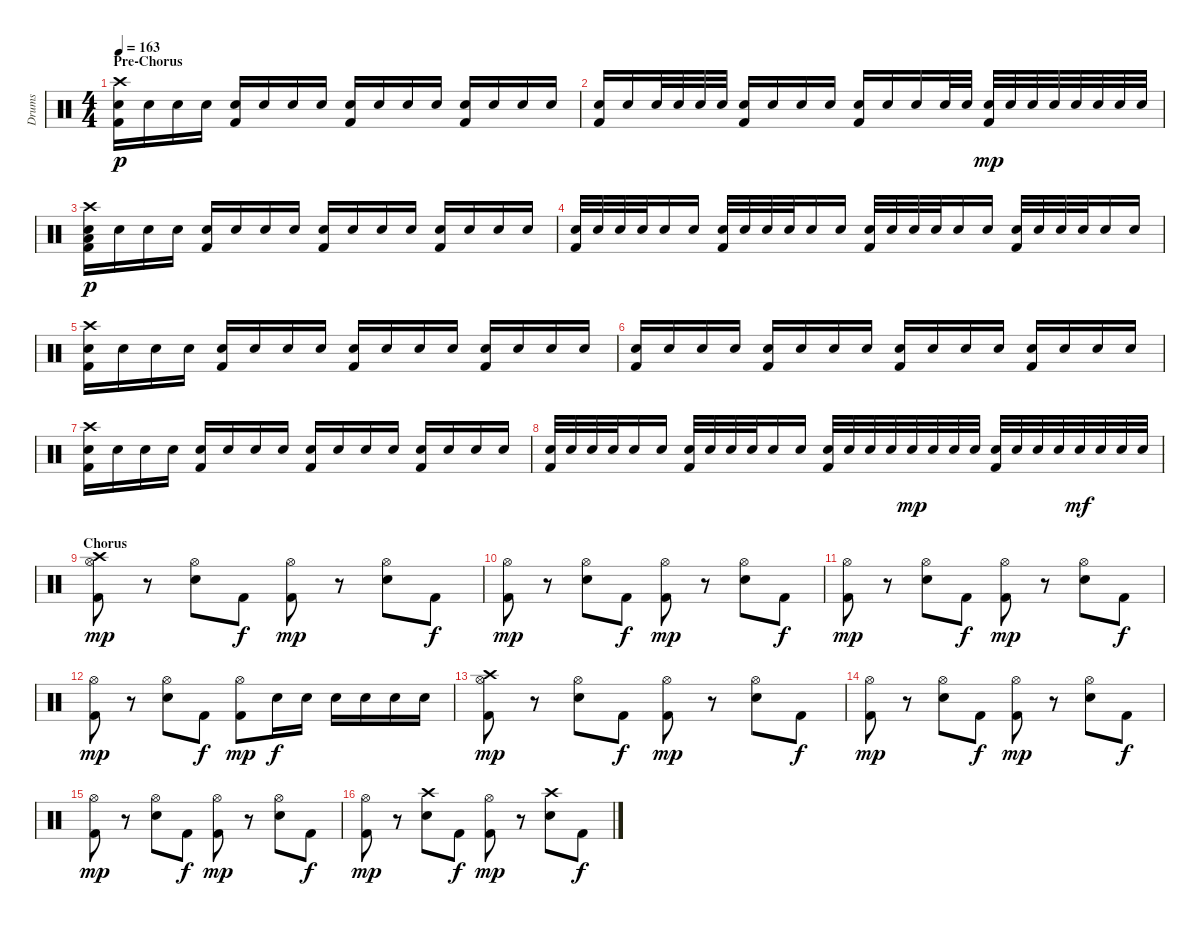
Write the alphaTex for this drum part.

\track ("Drums" "Drums") {instrument percussion}
\staff {score}
\articulation defaults
\ts (4 4)
\section ("" "Pre-Chorus")
\tempo 163
\clef neutral
\ks c
("Crash high (hit)" "Electric Snare (hit)" "Kick (hit) 2").16{dy p} "Electric Snare (hit)".16 "Electric Snare (hit)".16 "Electric Snare (hit)".16 ("Electric Snare (hit)" "Kick (hit) 2").16 "Electric Snare (hit)".16 "Electric Snare (hit)".16 "Electric Snare (hit)".16 ("Electric Snare (hit)" "Kick (hit) 2").16 "Electric Snare (hit)".16 "Electric Snare (hit)".16 "Electric Snare (hit)".16 ("Electric Snare (hit)" "Kick (hit) 2").16 "Electric Snare (hit)".16 "Electric Snare (hit)".16 "Electric Snare (hit)".16 |
("Electric Snare (hit)" "Kick (hit) 2").16 "Electric Snare (hit)".16 "Electric Snare (hit)".32 "Electric Snare (hit)".32 "Electric Snare (hit)".32 "Electric Snare (hit)".32 ("Electric Snare (hit)" "Kick (hit) 2").16 "Electric Snare (hit)".16 "Electric Snare (hit)".16 "Electric Snare (hit)".16 ("Electric Snare (hit)" "Kick (hit) 2").16 "Electric Snare (hit)".16 "Electric Snare (hit)".16 "Electric Snare (hit)".32 "Electric Snare (hit)".32 ("Electric Snare (hit)" "Kick (hit) 2").32{dy mp} "Electric Snare (hit)".32 "Electric Snare (hit)".32 "Electric Snare (hit)".32 "Electric Snare (hit)".32 "Electric Snare (hit)".32 "Electric Snare (hit)".32 "Electric Snare (hit)".32 |
("Low Floor Tom (hit)" "Crash high (hit)" "Electric Snare (hit)" "Kick (hit) 2").16{dy p} "Electric Snare (hit)".16 "Electric Snare (hit)".16 "Electric Snare (hit)".16 ("Electric Snare (hit)" "Kick (hit) 2").16 "Electric Snare (hit)".16 "Electric Snare (hit)".16 "Electric Snare (hit)".16 ("Electric Snare (hit)" "Kick (hit) 2").16 "Electric Snare (hit)".16 "Electric Snare (hit)".16 "Electric Snare (hit)".16 ("Electric Snare (hit)" "Kick (hit) 2").16 "Electric Snare (hit)".16 "Electric Snare (hit)".16 "Electric Snare (hit)".16 |
("Electric Snare (hit)" "Kick (hit) 2").32 "Electric Snare (hit)".32 "Electric Snare (hit)".32 "Electric Snare (hit)".32 "Electric Snare (hit)".16 "Electric Snare (hit)".16 ("Electric Snare (hit)" "Kick (hit) 2").32 "Electric Snare (hit)".32 "Electric Snare (hit)".32 "Electric Snare (hit)".32 "Electric Snare (hit)".16 "Electric Snare (hit)".16 ("Electric Snare (hit)" "Kick (hit) 2").32 "Electric Snare (hit)".32 "Electric Snare (hit)".32 "Electric Snare (hit)".32 "Electric Snare (hit)".16 "Electric Snare (hit)".16 ("Electric Snare (hit)" "Kick (hit) 2").32 "Electric Snare (hit)".32 "Electric Snare (hit)".32 "Electric Snare (hit)".32 "Electric Snare (hit)".16 "Electric Snare (hit)".16 |
("Crash high (hit)" "Electric Snare (hit)" "Kick (hit) 2").16 "Electric Snare (hit)".16 "Electric Snare (hit)".16 "Electric Snare (hit)".16 ("Electric Snare (hit)" "Kick (hit) 2").16 "Electric Snare (hit)".16 "Electric Snare (hit)".16 "Electric Snare (hit)".16 ("Electric Snare (hit)" "Kick (hit) 2").16 "Electric Snare (hit)".16 "Electric Snare (hit)".16 "Electric Snare (hit)".16 ("Electric Snare (hit)" "Kick (hit) 2").16 "Electric Snare (hit)".16 "Electric Snare (hit)".16 "Electric Snare (hit)".16 |
("Electric Snare (hit)" "Kick (hit) 2").16 "Electric Snare (hit)".16 "Electric Snare (hit)".16 "Electric Snare (hit)".16 ("Electric Snare (hit)" "Kick (hit) 2").16 "Electric Snare (hit)".16 "Electric Snare (hit)".16 "Electric Snare (hit)".16 ("Electric Snare (hit)" "Kick (hit) 2").16 "Electric Snare (hit)".16 "Electric Snare (hit)".16 "Electric Snare (hit)".16 ("Electric Snare (hit)" "Kick (hit) 2").16 "Electric Snare (hit)".16 "Electric Snare (hit)".16 "Electric Snare (hit)".16 |
("Crash high (hit)" "Electric Snare (hit)" "Kick (hit) 2").16 "Electric Snare (hit)".16 "Electric Snare (hit)".16 "Electric Snare (hit)".16 ("Electric Snare (hit)" "Kick (hit) 2").16 "Electric Snare (hit)".16 "Electric Snare (hit)".16 "Electric Snare (hit)".16 ("Electric Snare (hit)" "Kick (hit) 2").16 "Electric Snare (hit)".16 "Electric Snare (hit)".16 "Electric Snare (hit)".16 ("Electric Snare (hit)" "Kick (hit) 2").16 "Electric Snare (hit)".16 "Electric Snare (hit)".16 "Electric Snare (hit)".16 |
("Electric Snare (hit)" "Kick (hit) 2").32 "Electric Snare (hit)".32 "Electric Snare (hit)".32 "Electric Snare (hit)".32 "Electric Snare (hit)".16 "Electric Snare (hit)".16 ("Electric Snare (hit)" "Kick (hit) 2").32 "Electric Snare (hit)".32 "Electric Snare (hit)".32 "Electric Snare (hit)".32 "Electric Snare (hit)".16 "Electric Snare (hit)".16 ("Electric Snare (hit)" "Kick (hit) 2").32 "Electric Snare (hit)".32 "Electric Snare (hit)".32 "Electric Snare (hit)".32 "Electric Snare (hit)".32{dy mp} "Electric Snare (hit)".32 "Electric Snare (hit)".32 "Electric Snare (hit)".32 ("Electric Snare (hit)" "Kick (hit) 2").32 "Electric Snare (hit)".32 "Electric Snare (hit)".32 "Electric Snare (hit)".32 "Electric Snare (hit)".32{dy mf} "Electric Snare (hit)".32 "Electric Snare (hit)".32 "Electric Snare (hit)".32 |
\section ("" "Chorus")
("Crash high (hit)" "Hi-Hat (open)" "Kick (hit) 2").8{dy mp} r.8 ("Hi-Hat (open)" "Electric Snare (hit)").8 "Kick (hit) 2".8{dy f} ("Hi-Hat (open)" "Kick (hit) 2").8{dy mp} r.8 ("Hi-Hat (open)" "Electric Snare (hit)").8 "Kick (hit) 2".8{dy f} |
("Hi-Hat (open)" "Kick (hit) 2").8{dy mp} r.8 ("Hi-Hat (open)" "Electric Snare (hit)").8 "Kick (hit) 2".8{dy f} ("Hi-Hat (open)" "Kick (hit) 2").8{dy mp} r.8 ("Hi-Hat (open)" "Electric Snare (hit)").8 "Kick (hit) 2".8{dy f} |
("Hi-Hat (open)" "Kick (hit) 2").8{dy mp} r.8 ("Hi-Hat (open)" "Electric Snare (hit)").8 "Kick (hit) 2".8{dy f} ("Hi-Hat (open)" "Kick (hit) 2").8{dy mp} r.8 ("Hi-Hat (open)" "Electric Snare (hit)").8 "Kick (hit) 2".8{dy f} |
("Hi-Hat (open)" "Kick (hit) 2").8{dy mp} r.8 ("Hi-Hat (open)" "Electric Snare (hit)").8 "Kick (hit) 2".8{dy f} ("Hi-Hat (open)" "Kick (hit) 2").8{dy mp} "Electric Snare (hit)".16{dy f} "Electric Snare (hit)".16 "Electric Snare (hit)".16 "Electric Snare (hit)".16 "Electric Snare (hit)".16 "Electric Snare (hit)".16 |
("Crash high (hit)" "Hi-Hat (open)" "Kick (hit) 2").8{dy mp} r.8 ("Hi-Hat (open)" "Electric Snare (hit)").8 "Kick (hit) 2".8{dy f} ("Hi-Hat (open)" "Kick (hit) 2").8{dy mp} r.8 ("Hi-Hat (open)" "Electric Snare (hit)").8 "Kick (hit) 2".8{dy f} |
("Hi-Hat (open)" "Kick (hit) 2").8{dy mp} r.8 ("Hi-Hat (open)" "Electric Snare (hit)").8 "Kick (hit) 2".8{dy f} ("Hi-Hat (open)" "Kick (hit) 2").8{dy mp} r.8 ("Hi-Hat (open)" "Electric Snare (hit)").8 "Kick (hit) 2".8{dy f} |
("Hi-Hat (open)" "Kick (hit) 2").8{dy mp} r.8 ("Hi-Hat (open)" "Electric Snare (hit)").8 "Kick (hit) 2".8{dy f} ("Hi-Hat (open)" "Kick (hit) 2").8{dy mp} r.8 ("Hi-Hat (open)" "Electric Snare (hit)").8 "Kick (hit) 2".8{dy f} |
("Hi-Hat (open)" "Kick (hit) 2").8{dy mp} r.8 ("Crash high (hit)" "Electric Snare (hit)").8 "Kick (hit) 2".8{dy f} ("Hi-Hat (open)" "Kick (hit) 2").8{dy mp} r.8 ("Crash high (hit)" "Electric Snare (hit)").8 "Kick (hit) 2".8{dy f}
